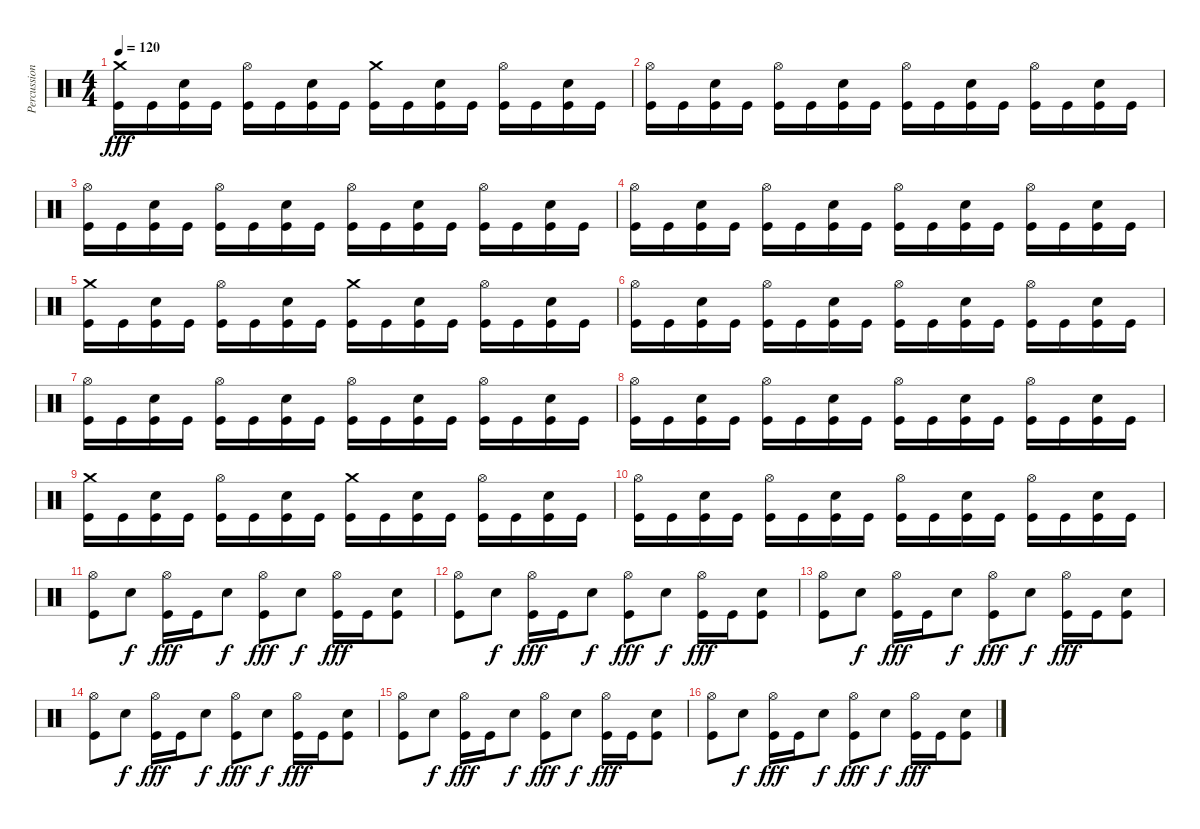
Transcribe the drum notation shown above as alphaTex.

\track ("Percussion" "Percussion") {instrument percussion}
\staff {score}
\articulation defaults
\ts (4 4)
\tempo 120
\clef neutral
\ks c
("Crash medium (hit)" "Kick (hit)").16{dy fff} "Kick (hit)".16 ("Electric Snare (hit)" "Kick (hit)").16 "Kick (hit)".16 ("Hi-Hat (open)" "Kick (hit)").16 "Kick (hit)".16 ("Electric Snare (hit)" "Kick (hit)").16 "Kick (hit)".16 ("Crash medium (hit)" "Kick (hit)").16 "Kick (hit)".16 ("Electric Snare (hit)" "Kick (hit)").16 "Kick (hit)".16 ("Hi-Hat (open)" "Kick (hit)").16 "Kick (hit)".16 ("Electric Snare (hit)" "Kick (hit)").16 "Kick (hit)".16 |
("Hi-Hat (open)" "Kick (hit)").16 "Kick (hit)".16 ("Electric Snare (hit)" "Kick (hit)").16 "Kick (hit)".16 ("Hi-Hat (open)" "Kick (hit)").16 "Kick (hit)".16 ("Electric Snare (hit)" "Kick (hit)").16 "Kick (hit)".16 ("Hi-Hat (open)" "Kick (hit)").16 "Kick (hit)".16 ("Electric Snare (hit)" "Kick (hit)").16 "Kick (hit)".16 ("Hi-Hat (open)" "Kick (hit)").16 "Kick (hit)".16 ("Electric Snare (hit)" "Kick (hit)").16 "Kick (hit)".16 |
("Hi-Hat (open)" "Kick (hit)").16 "Kick (hit)".16 ("Electric Snare (hit)" "Kick (hit)").16 "Kick (hit)".16 ("Hi-Hat (open)" "Kick (hit)").16 "Kick (hit)".16 ("Electric Snare (hit)" "Kick (hit)").16 "Kick (hit)".16 ("Hi-Hat (open)" "Kick (hit)").16 "Kick (hit)".16 ("Electric Snare (hit)" "Kick (hit)").16 "Kick (hit)".16 ("Hi-Hat (open)" "Kick (hit)").16 "Kick (hit)".16 ("Electric Snare (hit)" "Kick (hit)").16 "Kick (hit)".16 |
("Hi-Hat (open)" "Kick (hit)").16 "Kick (hit)".16 ("Electric Snare (hit)" "Kick (hit)").16 "Kick (hit)".16 ("Hi-Hat (open)" "Kick (hit)").16 "Kick (hit)".16 ("Electric Snare (hit)" "Kick (hit)").16 "Kick (hit)".16 ("Hi-Hat (open)" "Kick (hit)").16 "Kick (hit)".16 ("Electric Snare (hit)" "Kick (hit)").16 "Kick (hit)".16 ("Hi-Hat (open)" "Kick (hit)").16 "Kick (hit)".16 ("Electric Snare (hit)" "Kick (hit)").16 "Kick (hit)".16 |
("Crash medium (hit)" "Kick (hit)").16 "Kick (hit)".16 ("Electric Snare (hit)" "Kick (hit)").16 "Kick (hit)".16 ("Hi-Hat (open)" "Kick (hit)").16 "Kick (hit)".16 ("Electric Snare (hit)" "Kick (hit)").16 "Kick (hit)".16 ("Crash medium (hit)" "Kick (hit)").16 "Kick (hit)".16 ("Electric Snare (hit)" "Kick (hit)").16 "Kick (hit)".16 ("Hi-Hat (open)" "Kick (hit)").16 "Kick (hit)".16 ("Electric Snare (hit)" "Kick (hit)").16 "Kick (hit)".16 |
("Hi-Hat (open)" "Kick (hit)").16 "Kick (hit)".16 ("Electric Snare (hit)" "Kick (hit)").16 "Kick (hit)".16 ("Hi-Hat (open)" "Kick (hit)").16 "Kick (hit)".16 ("Electric Snare (hit)" "Kick (hit)").16 "Kick (hit)".16 ("Hi-Hat (open)" "Kick (hit)").16 "Kick (hit)".16 ("Electric Snare (hit)" "Kick (hit)").16 "Kick (hit)".16 ("Hi-Hat (open)" "Kick (hit)").16 "Kick (hit)".16 ("Electric Snare (hit)" "Kick (hit)").16 "Kick (hit)".16 |
("Hi-Hat (open)" "Kick (hit)").16 "Kick (hit)".16 ("Electric Snare (hit)" "Kick (hit)").16 "Kick (hit)".16 ("Hi-Hat (open)" "Kick (hit)").16 "Kick (hit)".16 ("Electric Snare (hit)" "Kick (hit)").16 "Kick (hit)".16 ("Hi-Hat (open)" "Kick (hit)").16 "Kick (hit)".16 ("Electric Snare (hit)" "Kick (hit)").16 "Kick (hit)".16 ("Hi-Hat (open)" "Kick (hit)").16 "Kick (hit)".16 ("Electric Snare (hit)" "Kick (hit)").16 "Kick (hit)".16 |
("Hi-Hat (open)" "Kick (hit)").16 "Kick (hit)".16 ("Electric Snare (hit)" "Kick (hit)").16 "Kick (hit)".16 ("Hi-Hat (open)" "Kick (hit)").16 "Kick (hit)".16 ("Electric Snare (hit)" "Kick (hit)").16 "Kick (hit)".16 ("Hi-Hat (open)" "Kick (hit)").16 "Kick (hit)".16 ("Electric Snare (hit)" "Kick (hit)").16 "Kick (hit)".16 ("Hi-Hat (open)" "Kick (hit)").16 "Kick (hit)".16 ("Electric Snare (hit)" "Kick (hit)").16 "Kick (hit)".16 |
("Crash medium (hit)" "Kick (hit)").16 "Kick (hit)".16 ("Electric Snare (hit)" "Kick (hit)").16 "Kick (hit)".16 ("Hi-Hat (open)" "Kick (hit)").16 "Kick (hit)".16 ("Electric Snare (hit)" "Kick (hit)").16 "Kick (hit)".16 ("Crash medium (hit)" "Kick (hit)").16 "Kick (hit)".16 ("Electric Snare (hit)" "Kick (hit)").16 "Kick (hit)".16 ("Hi-Hat (open)" "Kick (hit)").16 "Kick (hit)".16 ("Electric Snare (hit)" "Kick (hit)").16 "Kick (hit)".16 |
("Hi-Hat (open)" "Kick (hit)").16 "Kick (hit)".16 ("Electric Snare (hit)" "Kick (hit)").16 "Kick (hit)".16 ("Hi-Hat (open)" "Kick (hit)").16 "Kick (hit)".16 ("Electric Snare (hit)" "Kick (hit)").16 "Kick (hit)".16 ("Hi-Hat (open)" "Kick (hit)").16 "Kick (hit)".16 ("Electric Snare (hit)" "Kick (hit)").16 "Kick (hit)".16 ("Hi-Hat (open)" "Kick (hit)").16 "Kick (hit)".16 ("Electric Snare (hit)" "Kick (hit)").16 "Kick (hit)".16 |
("Hi-Hat (open)" "Kick (hit)").8 "Electric Snare (hit)".8{dy f} ("Hi-Hat (open)" "Kick (hit)").16{dy fff} "Kick (hit)".16 "Electric Snare (hit)".8{dy f} ("Hi-Hat (open)" "Kick (hit)").8{dy fff} "Electric Snare (hit)".8{dy f} ("Hi-Hat (open)" "Kick (hit)").16{dy fff} "Kick (hit)".16 ("Electric Snare (hit)" "Kick (hit)").8 |
("Hi-Hat (open)" "Kick (hit)").8 "Electric Snare (hit)".8{dy f} ("Hi-Hat (open)" "Kick (hit)").16{dy fff} "Kick (hit)".16 "Electric Snare (hit)".8{dy f} ("Hi-Hat (open)" "Kick (hit)").8{dy fff} "Electric Snare (hit)".8{dy f} ("Hi-Hat (open)" "Kick (hit)").16{dy fff} "Kick (hit)".16 ("Electric Snare (hit)" "Kick (hit)").8 |
("Hi-Hat (open)" "Kick (hit)").8 "Electric Snare (hit)".8{dy f} ("Hi-Hat (open)" "Kick (hit)").16{dy fff} "Kick (hit)".16 "Electric Snare (hit)".8{dy f} ("Hi-Hat (open)" "Kick (hit)").8{dy fff} "Electric Snare (hit)".8{dy f} ("Hi-Hat (open)" "Kick (hit)").16{dy fff} "Kick (hit)".16 ("Electric Snare (hit)" "Kick (hit)").8 |
("Hi-Hat (open)" "Kick (hit)").8 "Electric Snare (hit)".8{dy f} ("Hi-Hat (open)" "Kick (hit)").16{dy fff} "Kick (hit)".16 "Electric Snare (hit)".8{dy f} ("Hi-Hat (open)" "Kick (hit)").8{dy fff} "Electric Snare (hit)".8{dy f} ("Hi-Hat (open)" "Kick (hit)").16{dy fff} "Kick (hit)".16 ("Electric Snare (hit)" "Kick (hit)").8 |
("Hi-Hat (open)" "Kick (hit)").8 "Electric Snare (hit)".8{dy f} ("Hi-Hat (open)" "Kick (hit)").16{dy fff} "Kick (hit)".16 "Electric Snare (hit)".8{dy f} ("Hi-Hat (open)" "Kick (hit)").8{dy fff} "Electric Snare (hit)".8{dy f} ("Hi-Hat (open)" "Kick (hit)").16{dy fff} "Kick (hit)".16 ("Electric Snare (hit)" "Kick (hit)").8 |
("Hi-Hat (open)" "Kick (hit)").8 "Electric Snare (hit)".8{dy f} ("Hi-Hat (open)" "Kick (hit)").16{dy fff} "Kick (hit)".16 "Electric Snare (hit)".8{dy f} ("Hi-Hat (open)" "Kick (hit)").8{dy fff} "Electric Snare (hit)".8{dy f} ("Hi-Hat (open)" "Kick (hit)").16{dy fff} "Kick (hit)".16 ("Electric Snare (hit)" "Kick (hit)").8
